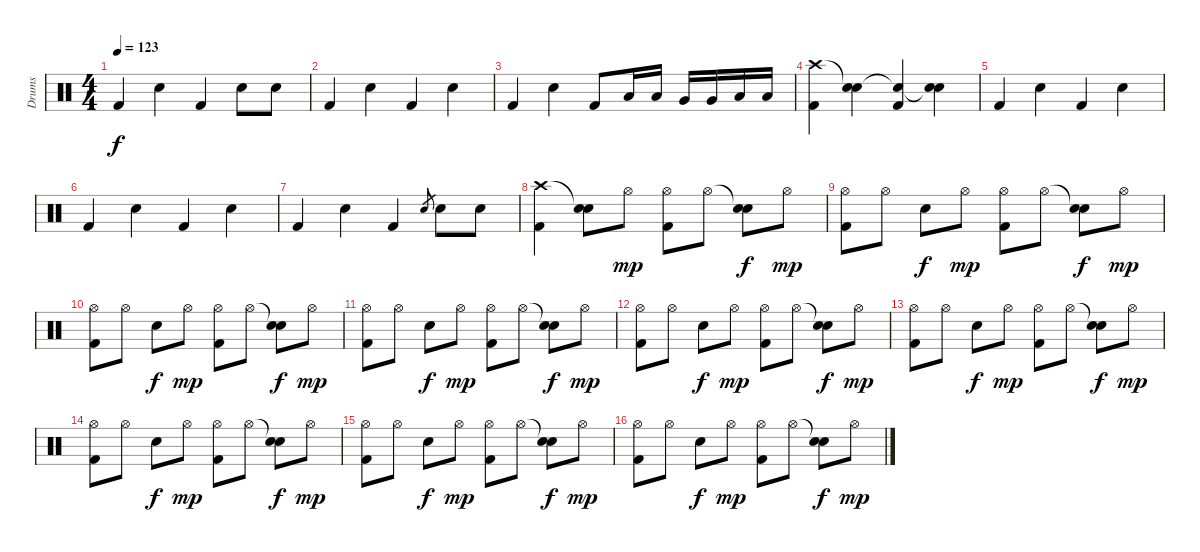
\track ("Drums" "Drums") {instrument percussion}
\staff {score}
\articulation defaults
\ts (4 4)
\tempo 123
\clef neutral
\ks c "Kick (hit) 2".4{dy f} "Electric Snare (hit)".4 "Kick (hit) 2".4 "Electric Snare (hit)".8 "Electric Snare (hit)".8
|
"Kick (hit) 2".4 "Electric Snare (hit)".4 "Kick (hit) 2".4 "Electric Snare (hit)".4 |
"Kick (hit) 2".4 "Electric Snare (hit)".4 "Kick (hit) 2".8 "Low Floor Tom (hit)".16 "Low Floor Tom (hit)".16 "Very Low Tom (hit)".16 "Very Low Tom (hit)".16 "Low Tom (hit)".16 "Low Tom (hit)".16 |
("Crash high (hit)" "Kick (hit) 2").4 ("Snare (hit)"{t} "Electric Snare (hit)").4 ("Snare (hit)"{t} "Kick (hit) 2").4 ("Snare (hit)"{t} "Electric Snare (hit)").4 |
"Kick (hit) 2".4 "Electric Snare (hit)".4 "Kick (hit) 2".4 "Electric Snare (hit)".4 |
"Kick (hit) 2".4 "Electric Snare (hit)".4 "Kick (hit) 2".4 "Electric Snare (hit)".4 |
"Kick (hit) 2".4 "Electric Snare (hit)".4 "Kick (hit) 2".4 "Electric Snare (hit)".8{gr} "Electric Snare (hit)".8 "Electric Snare (hit)".8 |
("Crash high (hit)" "Kick (hit) 2").4 ("Snare (hit)"{t} "Electric Snare (hit)").8 "Hi-Hat (open)".8{dy mp} ("Hi-Hat (open)" "Kick (hit) 2").8 "Hi-Hat (open)".8 ("Snare (hit)"{t} "Electric Snare (hit)").8{dy f} "Hi-Hat (open)".8{dy mp} |
("Hi-Hat (open)" "Kick (hit) 2").8 "Hi-Hat (open)".8 "Electric Snare (hit)".8{dy f} "Hi-Hat (open)".8{dy mp} ("Hi-Hat (open)" "Kick (hit) 2").8 "Hi-Hat (open)".8 ("Snare (hit)"{t} "Electric Snare (hit)").8{dy f} "Hi-Hat (open)".8{dy mp} |
("Hi-Hat (open)" "Kick (hit) 2").8 "Hi-Hat (open)".8 "Electric Snare (hit)".8{dy f} "Hi-Hat (open)".8{dy mp} ("Hi-Hat (open)" "Kick (hit) 2").8 "Hi-Hat (open)".8 ("Snare (hit)"{t} "Electric Snare (hit)").8{dy f} "Hi-Hat (open)".8{dy mp} |
("Hi-Hat (open)" "Kick (hit) 2").8 "Hi-Hat (open)".8 "Electric Snare (hit)".8{dy f} "Hi-Hat (open)".8{dy mp} ("Hi-Hat (open)" "Kick (hit) 2").8 "Hi-Hat (open)".8 ("Snare (hit)"{t} "Electric Snare (hit)").8{dy f} "Hi-Hat (open)".8{dy mp} |
("Hi-Hat (open)" "Kick (hit) 2").8{volume 7} "Hi-Hat (open)".8 "Electric Snare (hit)".8{dy f} "Hi-Hat (open)".8{dy mp} ("Hi-Hat (open)" "Kick (hit) 2").8 "Hi-Hat (open)".8 ("Snare (hit)"{t} "Electric Snare (hit)").8{dy f} "Hi-Hat (open)".8{dy mp} |
("Hi-Hat (open)" "Kick (hit) 2").8 "Hi-Hat (open)".8 "Electric Snare (hit)".8{dy f} "Hi-Hat (open)".8{dy mp} ("Hi-Hat (open)" "Kick (hit) 2").8 "Hi-Hat (open)".8 ("Snare (hit)"{t} "Electric Snare (hit)").8{dy f} "Hi-Hat (open)".8{dy mp} |
("Hi-Hat (open)" "Kick (hit) 2").8 "Hi-Hat (open)".8 "Electric Snare (hit)".8{dy f} "Hi-Hat (open)".8{dy mp} ("Hi-Hat (open)" "Kick (hit) 2").8 "Hi-Hat (open)".8 ("Snare (hit)"{t} "Electric Snare (hit)").8{dy f} "Hi-Hat (open)".8{dy mp} |
("Hi-Hat (open)" "Kick (hit) 2").8 "Hi-Hat (open)".8 "Electric Snare (hit)".8{dy f} "Hi-Hat (open)".8{dy mp} ("Hi-Hat (open)" "Kick (hit) 2").8 "Hi-Hat (open)".8 ("Snare (hit)"{t} "Electric Snare (hit)").8{dy f} "Hi-Hat (open)".8{dy mp} |
("Hi-Hat (open)" "Kick (hit) 2").8{volume 0} "Hi-Hat (open)".8 "Electric Snare (hit)".8{dy f} "Hi-Hat (open)".8{dy mp} ("Hi-Hat (open)" "Kick (hit) 2").8 "Hi-Hat (open)".8 ("Snare (hit)"{t} "Electric Snare (hit)").8{dy f} "Hi-Hat (open)".8{dy mp}
